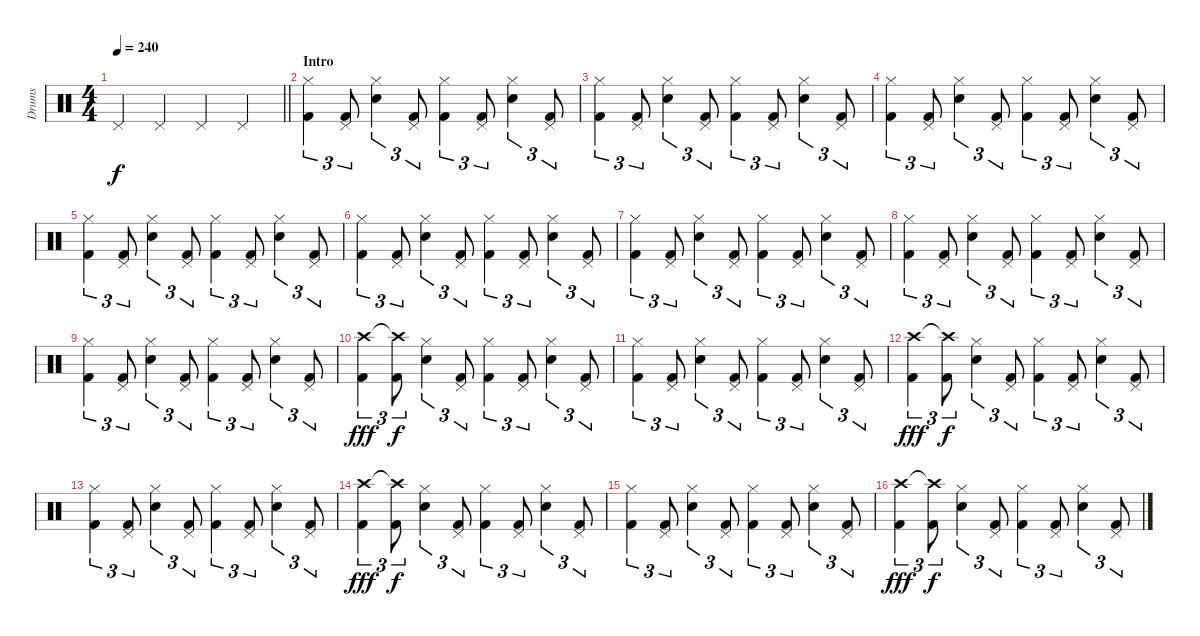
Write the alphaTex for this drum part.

\track ("Drums" "Drums") {instrument percussion}
\staff {score}
\articulation defaults
\ts (4 4)
\tempo 240
\clef neutral
\barLineRight lightlight
\ks c "Pedal Hi-Hat (hit)".4{dy f} "Pedal Hi-Hat (hit)".4 "Pedal Hi-Hat (hit)".4 "Pedal Hi-Hat (hit)".4
|
\section ("" "Intro")
("Hi-Hat (closed)" "Kick (hit) 2").4{tu (3 2)} ("Pedal Hi-Hat (hit)" "Kick (hit) 2").8{tu (3 2)} ("Hi-Hat (closed)" "Snare (hit) 2").4{tu (3 2)} ("Pedal Hi-Hat (hit)" "Kick (hit) 2").8{tu (3 2)} ("Hi-Hat (closed)" "Kick (hit) 2").4{tu (3 2)} ("Pedal Hi-Hat (hit)" "Kick (hit) 2").8{tu (3 2)} ("Hi-Hat (closed)" "Snare (hit) 2").4{tu (3 2)} ("Pedal Hi-Hat (hit)" "Kick (hit) 2").8{tu (3 2)} |
("Hi-Hat (closed)" "Kick (hit) 2").4{tu (3 2)} ("Pedal Hi-Hat (hit)" "Kick (hit) 2").8{tu (3 2)} ("Hi-Hat (closed)" "Snare (hit) 2").4{tu (3 2)} ("Pedal Hi-Hat (hit)" "Kick (hit) 2").8{tu (3 2)} ("Hi-Hat (closed)" "Kick (hit) 2").4{tu (3 2)} ("Pedal Hi-Hat (hit)" "Kick (hit) 2").8{tu (3 2)} ("Hi-Hat (closed)" "Snare (hit) 2").4{tu (3 2)} ("Pedal Hi-Hat (hit)" "Kick (hit) 2").8{tu (3 2)} |
("Hi-Hat (closed)" "Kick (hit) 2").4{tu (3 2)} ("Pedal Hi-Hat (hit)" "Kick (hit) 2").8{tu (3 2)} ("Hi-Hat (closed)" "Snare (hit) 2").4{tu (3 2)} ("Pedal Hi-Hat (hit)" "Kick (hit) 2").8{tu (3 2)} ("Hi-Hat (closed)" "Kick (hit) 2").4{tu (3 2)} ("Pedal Hi-Hat (hit)" "Kick (hit) 2").8{tu (3 2)} ("Hi-Hat (closed)" "Snare (hit) 2").4{tu (3 2)} ("Pedal Hi-Hat (hit)" "Kick (hit) 2").8{tu (3 2)} |
("Hi-Hat (closed)" "Kick (hit) 2").4{tu (3 2)} ("Pedal Hi-Hat (hit)" "Kick (hit) 2").8{tu (3 2)} ("Hi-Hat (closed)" "Snare (hit) 2").4{tu (3 2)} ("Pedal Hi-Hat (hit)" "Kick (hit) 2").8{tu (3 2)} ("Hi-Hat (closed)" "Kick (hit) 2").4{tu (3 2)} ("Pedal Hi-Hat (hit)" "Kick (hit) 2").8{tu (3 2)} ("Hi-Hat (closed)" "Snare (hit) 2").4{tu (3 2)} ("Pedal Hi-Hat (hit)" "Kick (hit) 2").8{tu (3 2)} |
("Hi-Hat (closed)" "Kick (hit) 2").4{tu (3 2)} ("Pedal Hi-Hat (hit)" "Kick (hit) 2").8{tu (3 2)} ("Hi-Hat (closed)" "Snare (hit) 2").4{tu (3 2)} ("Pedal Hi-Hat (hit)" "Kick (hit) 2").8{tu (3 2)} ("Hi-Hat (closed)" "Kick (hit) 2").4{tu (3 2)} ("Pedal Hi-Hat (hit)" "Kick (hit) 2").8{tu (3 2)} ("Hi-Hat (closed)" "Snare (hit) 2").4{tu (3 2)} ("Pedal Hi-Hat (hit)" "Kick (hit) 2").8{tu (3 2)} |
("Hi-Hat (closed)" "Kick (hit) 2").4{tu (3 2)} ("Pedal Hi-Hat (hit)" "Kick (hit) 2").8{tu (3 2)} ("Hi-Hat (closed)" "Snare (hit) 2").4{tu (3 2)} ("Pedal Hi-Hat (hit)" "Kick (hit) 2").8{tu (3 2)} ("Hi-Hat (closed)" "Kick (hit) 2").4{tu (3 2)} ("Pedal Hi-Hat (hit)" "Kick (hit) 2").8{tu (3 2)} ("Hi-Hat (closed)" "Snare (hit) 2").4{tu (3 2)} ("Pedal Hi-Hat (hit)" "Kick (hit) 2").8{tu (3 2)} |
("Hi-Hat (closed)" "Kick (hit) 2").4{tu (3 2)} ("Pedal Hi-Hat (hit)" "Kick (hit) 2").8{tu (3 2)} ("Hi-Hat (closed)" "Snare (hit) 2").4{tu (3 2)} ("Pedal Hi-Hat (hit)" "Kick (hit) 2").8{tu (3 2)} ("Hi-Hat (closed)" "Kick (hit) 2").4{tu (3 2)} ("Pedal Hi-Hat (hit)" "Kick (hit) 2").8{tu (3 2)} ("Hi-Hat (closed)" "Snare (hit) 2").4{tu (3 2)} ("Pedal Hi-Hat (hit)" "Kick (hit) 2").8{tu (3 2)} |
("Hi-Hat (closed)" "Kick (hit) 2").4{tu (3 2)} ("Pedal Hi-Hat (hit)" "Kick (hit) 2").8{tu (3 2)} ("Hi-Hat (closed)" "Snare (hit) 2").4{tu (3 2)} ("Pedal Hi-Hat (hit)" "Kick (hit) 2").8{tu (3 2)} ("Hi-Hat (closed)" "Kick (hit) 2").4{tu (3 2)} ("Pedal Hi-Hat (hit)" "Kick (hit) 2").8{tu (3 2)} ("Hi-Hat (closed)" "Snare (hit) 2").4{tu (3 2)} ("Pedal Hi-Hat (hit)" "Kick (hit) 2").8{tu (3 2)} |
("Crash high (hit)" "Kick (hit) 2").4{tu (3 2) dy fff} ("Crash high (hit)"{t} "Kick (hit) 2").8{tu (3 2) dy f} ("Hi-Hat (closed)" "Snare (hit) 2").4{tu (3 2)} ("Pedal Hi-Hat (hit)" "Kick (hit) 2").8{tu (3 2)} ("Hi-Hat (closed)" "Kick (hit) 2").4{tu (3 2)} ("Pedal Hi-Hat (hit)" "Kick (hit) 2").8{tu (3 2)} ("Hi-Hat (closed)" "Snare (hit) 2").4{tu (3 2)} ("Pedal Hi-Hat (hit)" "Kick (hit) 2").8{tu (3 2)} |
("Hi-Hat (closed)" "Kick (hit) 2").4{tu (3 2)} ("Pedal Hi-Hat (hit)" "Kick (hit) 2").8{tu (3 2)} ("Hi-Hat (closed)" "Snare (hit) 2").4{tu (3 2)} ("Pedal Hi-Hat (hit)" "Kick (hit) 2").8{tu (3 2)} ("Hi-Hat (closed)" "Kick (hit) 2").4{tu (3 2)} ("Pedal Hi-Hat (hit)" "Kick (hit) 2").8{tu (3 2)} ("Hi-Hat (closed)" "Snare (hit) 2").4{tu (3 2)} ("Pedal Hi-Hat (hit)" "Kick (hit) 2").8{tu (3 2)} |
("Crash high (hit)" "Kick (hit) 2").4{tu (3 2) dy fff} ("Crash high (hit)"{t} "Kick (hit) 2").8{tu (3 2) dy f} ("Hi-Hat (closed)" "Snare (hit) 2").4{tu (3 2)} ("Pedal Hi-Hat (hit)" "Kick (hit) 2").8{tu (3 2)} ("Hi-Hat (closed)" "Kick (hit) 2").4{tu (3 2)} ("Pedal Hi-Hat (hit)" "Kick (hit) 2").8{tu (3 2)} ("Hi-Hat (closed)" "Snare (hit) 2").4{tu (3 2)} ("Pedal Hi-Hat (hit)" "Kick (hit) 2").8{tu (3 2)} |
("Hi-Hat (closed)" "Kick (hit) 2").4{tu (3 2)} ("Pedal Hi-Hat (hit)" "Kick (hit) 2").8{tu (3 2)} ("Hi-Hat (closed)" "Snare (hit) 2").4{tu (3 2)} ("Pedal Hi-Hat (hit)" "Kick (hit) 2").8{tu (3 2)} ("Hi-Hat (closed)" "Kick (hit) 2").4{tu (3 2)} ("Pedal Hi-Hat (hit)" "Kick (hit) 2").8{tu (3 2)} ("Hi-Hat (closed)" "Snare (hit) 2").4{tu (3 2)} ("Pedal Hi-Hat (hit)" "Kick (hit) 2").8{tu (3 2)} |
("Crash high (hit)" "Kick (hit) 2").4{tu (3 2) dy fff} ("Crash high (hit)"{t} "Kick (hit) 2").8{tu (3 2) dy f} ("Hi-Hat (closed)" "Snare (hit) 2").4{tu (3 2)} ("Pedal Hi-Hat (hit)" "Kick (hit) 2").8{tu (3 2)} ("Hi-Hat (closed)" "Kick (hit) 2").4{tu (3 2)} ("Pedal Hi-Hat (hit)" "Kick (hit) 2").8{tu (3 2)} ("Hi-Hat (closed)" "Snare (hit) 2").4{tu (3 2)} ("Pedal Hi-Hat (hit)" "Kick (hit) 2").8{tu (3 2)} |
("Hi-Hat (closed)" "Kick (hit) 2").4{tu (3 2)} ("Pedal Hi-Hat (hit)" "Kick (hit) 2").8{tu (3 2)} ("Hi-Hat (closed)" "Snare (hit) 2").4{tu (3 2)} ("Pedal Hi-Hat (hit)" "Kick (hit) 2").8{tu (3 2)} ("Hi-Hat (closed)" "Kick (hit) 2").4{tu (3 2)} ("Pedal Hi-Hat (hit)" "Kick (hit) 2").8{tu (3 2)} ("Hi-Hat (closed)" "Snare (hit) 2").4{tu (3 2)} ("Pedal Hi-Hat (hit)" "Kick (hit) 2").8{tu (3 2)} |
("Crash high (hit)" "Kick (hit) 2").4{tu (3 2) dy fff} ("Crash high (hit)"{t} "Kick (hit) 2").8{tu (3 2) dy f} ("Hi-Hat (closed)" "Snare (hit) 2").4{tu (3 2)} ("Pedal Hi-Hat (hit)" "Kick (hit) 2").8{tu (3 2)} ("Hi-Hat (closed)" "Kick (hit) 2").4{tu (3 2)} ("Pedal Hi-Hat (hit)" "Kick (hit) 2").8{tu (3 2)} ("Hi-Hat (closed)" "Snare (hit) 2").4{tu (3 2)} ("Pedal Hi-Hat (hit)" "Kick (hit) 2").8{tu (3 2)}
